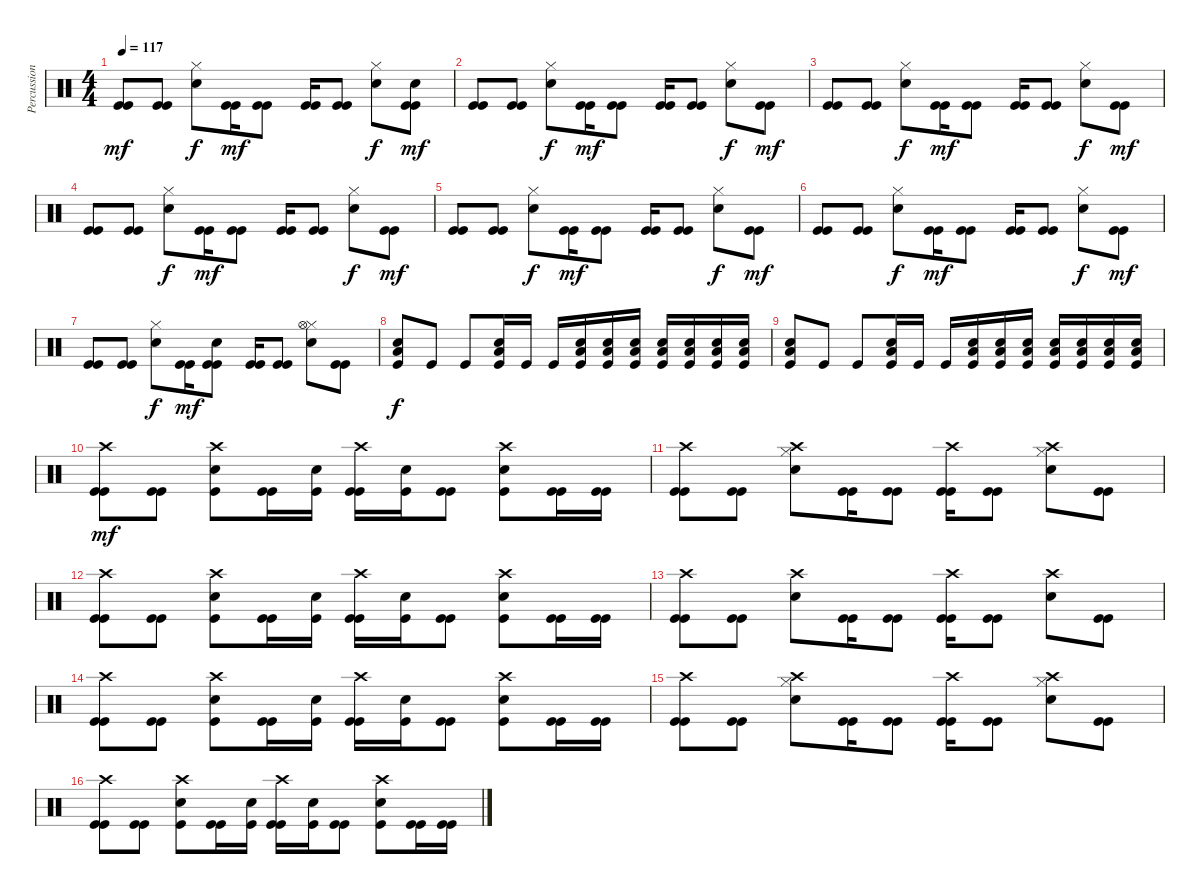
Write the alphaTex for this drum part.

\track ("Percussion" "Percussion") {instrument percussion}
\staff {score}
\articulation defaults
\ts (4 4)
\tempo 117
\clef neutral
\ks c
("Kick (hit)" "Kick (hit)").8{dy mf} ("Kick (hit)" "Kick (hit)").8 ("Electric Snare (hit)" "Hi-Hat (closed)").8{dy f} ("Kick (hit)" "Kick (hit)").16{dy mf} ("Kick (hit)" "Kick (hit)").8 ("Kick (hit)" "Kick (hit)").16 ("Kick (hit)" "Kick (hit)").8 ("Electric Snare (hit)" "Hi-Hat (closed)").8{dy f} ("Kick (hit)" "Kick (hit)" "Snare (hit)"{t}).8{dy mf} |
("Kick (hit)" "Kick (hit)").8 ("Kick (hit)" "Kick (hit)").8 ("Electric Snare (hit)" "Hi-Hat (closed)").8{dy f} ("Kick (hit)" "Kick (hit)").16{dy mf} ("Kick (hit)" "Kick (hit)").8 ("Kick (hit)" "Kick (hit)").16 ("Kick (hit)" "Kick (hit)").8 ("Electric Snare (hit)" "Hi-Hat (closed)").8{dy f} ("Kick (hit)" "Kick (hit)").8{dy mf} |
("Kick (hit)" "Kick (hit)").8 ("Kick (hit)" "Kick (hit)").8 ("Electric Snare (hit)" "Hi-Hat (closed)").8{dy f} ("Kick (hit)" "Kick (hit)").16{dy mf} ("Kick (hit)" "Kick (hit)").8 ("Kick (hit)" "Kick (hit)").16 ("Kick (hit)" "Kick (hit)").8 ("Electric Snare (hit)" "Hi-Hat (closed)").8{dy f} ("Kick (hit)" "Kick (hit)").8{dy mf} |
("Kick (hit)" "Kick (hit)").8 ("Kick (hit)" "Kick (hit)").8 ("Electric Snare (hit)" "Hi-Hat (closed)").8{dy f} ("Kick (hit)" "Kick (hit)").16{dy mf} ("Kick (hit)" "Kick (hit)").8 ("Kick (hit)" "Kick (hit)").16 ("Kick (hit)" "Kick (hit)").8 ("Electric Snare (hit)" "Hi-Hat (closed)").8{dy f} ("Kick (hit)" "Kick (hit)").8{dy mf} |
("Kick (hit)" "Kick (hit)").8 ("Kick (hit)" "Kick (hit)").8 ("Electric Snare (hit)" "Hi-Hat (closed)").8{dy f} ("Kick (hit)" "Kick (hit)").16{dy mf} ("Kick (hit)" "Kick (hit)").8 ("Kick (hit)" "Kick (hit)").16 ("Kick (hit)" "Kick (hit)").8 ("Electric Snare (hit)" "Hi-Hat (closed)").8{dy f} ("Kick (hit)" "Kick (hit)").8{dy mf} |
("Kick (hit)" "Kick (hit)").8 ("Kick (hit)" "Kick (hit)").8 ("Electric Snare (hit)" "Hi-Hat (closed)").8{dy f} ("Kick (hit)" "Kick (hit)").16{dy mf} ("Kick (hit)" "Kick (hit)").8 ("Kick (hit)" "Kick (hit)").16 ("Kick (hit)" "Kick (hit)").8 ("Electric Snare (hit)" "Hi-Hat (closed)").8{dy f} ("Kick (hit)" "Kick (hit)").8{dy mf} |
("Kick (hit)" "Kick (hit)").8 ("Kick (hit)" "Kick (hit)").8 ("Electric Snare (hit)" "Hi-Hat (closed)").8{dy f} ("Kick (hit)" "Kick (hit)").16{dy mf} ("Kick (hit)" "Kick (hit)" "Electric Snare (hit)").8 ("Kick (hit)" "Kick (hit)").16 ("Kick (hit)" "Kick (hit)").8 ("Electric Snare (hit)" "Hi-Hat (closed)" "Hi-Hat (open)").8 ("Kick (hit)" "Kick (hit)").8 |
("Kick (hit)" "Low Floor Tom (hit)" "Hand Clap (hit)").8{dy f} "Kick (hit)".8 "Kick (hit)".8 ("Kick (hit)" "Low Floor Tom (hit)" "Hand Clap (hit)").16 "Kick (hit)".16 "Kick (hit)".16 ("Kick (hit)" "Low Floor Tom (hit)" "Hand Clap (hit)").16 ("Kick (hit)" "Low Floor Tom (hit)" "Hand Clap (hit)").16 ("Kick (hit)" "Low Floor Tom (hit)" "Hand Clap (hit)").16 ("Kick (hit)" "Low Floor Tom (hit)" "Hand Clap (hit)").16 ("Kick (hit)" "Low Floor Tom (hit)" "Hand Clap (hit)").16 ("Kick (hit)" "Low Floor Tom (hit)" "Hand Clap (hit)").16 ("Kick (hit)" "Low Floor Tom (hit)" "Hand Clap (hit)").16 |
("Kick (hit)" "Low Floor Tom (hit)" "Hand Clap (hit)").8 "Kick (hit)".8 "Kick (hit)".8 ("Kick (hit)" "Low Floor Tom (hit)" "Hand Clap (hit)").16 "Kick (hit)".16 "Kick (hit)".16 ("Kick (hit)" "Low Floor Tom (hit)" "Hand Clap (hit)").16 ("Kick (hit)" "Low Floor Tom (hit)" "Hand Clap (hit)").16 ("Kick (hit)" "Low Floor Tom (hit)" "Hand Clap (hit)").16 ("Kick (hit)" "Low Floor Tom (hit)" "Hand Clap (hit)").16 ("Kick (hit)" "Low Floor Tom (hit)" "Hand Clap (hit)").16 ("Kick (hit)" "Low Floor Tom (hit)" "Hand Clap (hit)").16 ("Kick (hit)" "Low Floor Tom (hit)" "Hand Clap (hit)").16 |
("Crash high (hit)" "Kick (hit)" "Kick (hit)").8{dy mf} ("Kick (hit)" "Kick (hit)").8 ("Crash high (hit)" "Kick (hit)" "Electric Snare (hit)").8 ("Kick (hit)" "Kick (hit)").16 ("Kick (hit)" "Electric Snare (hit)").16 ("Crash high (hit)" "Kick (hit)" "Kick (hit)").16 ("Kick (hit)" "Electric Snare (hit)").16 ("Kick (hit)" "Kick (hit)").8 ("Crash high (hit)" "Kick (hit)" "Electric Snare (hit)").8 ("Kick (hit)" "Kick (hit)").16 ("Kick (hit)" "Kick (hit)").16 |
("Kick (hit)" "Kick (hit)" "Crash high (hit)").8 ("Kick (hit)" "Kick (hit)").8 ("Electric Snare (hit)" "Hi-Hat (closed)" "Crash high (hit)").8 ("Kick (hit)" "Kick (hit)").16 ("Kick (hit)" "Kick (hit)").8 ("Kick (hit)" "Kick (hit)" "Crash high (hit)").16 ("Kick (hit)" "Kick (hit)").8 ("Electric Snare (hit)" "Hi-Hat (closed)" "Crash high (hit)").8 ("Kick (hit)" "Kick (hit)").8 |
("Kick (hit)" "Kick (hit)" "Crash high (hit)").8 ("Kick (hit)" "Kick (hit)").8 ("Kick (hit)" "Electric Snare (hit)" "Crash high (hit)").8 ("Kick (hit)" "Kick (hit)").16 ("Kick (hit)" "Electric Snare (hit)").16 ("Kick (hit)" "Kick (hit)" "Crash high (hit)").16 ("Kick (hit)" "Electric Snare (hit)").16 ("Kick (hit)" "Kick (hit)").8 ("Kick (hit)" "Electric Snare (hit)" "Crash high (hit)").8 ("Kick (hit)" "Kick (hit)").16 ("Kick (hit)" "Kick (hit)").16 |
("Kick (hit)" "Kick (hit)" "Crash high (hit)").8 ("Kick (hit)" "Kick (hit)").8 ("Electric Snare (hit)" "Crash high (hit)").8 ("Kick (hit)" "Kick (hit)").16 ("Kick (hit)" "Kick (hit)").8 ("Kick (hit)" "Kick (hit)" "Crash high (hit)").16 ("Kick (hit)" "Kick (hit)").8 ("Electric Snare (hit)" "Crash high (hit)").8 ("Kick (hit)" "Kick (hit)").8 |
("Crash high (hit)" "Kick (hit)" "Kick (hit)").8 ("Kick (hit)" "Kick (hit)").8 ("Crash high (hit)" "Kick (hit)" "Electric Snare (hit)").8 ("Kick (hit)" "Kick (hit)").16 ("Kick (hit)" "Electric Snare (hit)").16 ("Crash high (hit)" "Kick (hit)" "Kick (hit)").16 ("Kick (hit)" "Electric Snare (hit)").16 ("Kick (hit)" "Kick (hit)").8 ("Crash high (hit)" "Kick (hit)" "Electric Snare (hit)").8 ("Kick (hit)" "Kick (hit)").16 ("Kick (hit)" "Kick (hit)").16 |
("Kick (hit)" "Kick (hit)" "Crash high (hit)").8 ("Kick (hit)" "Kick (hit)").8 ("Electric Snare (hit)" "Hi-Hat (closed)" "Crash high (hit)").8 ("Kick (hit)" "Kick (hit)").16 ("Kick (hit)" "Kick (hit)").8 ("Kick (hit)" "Kick (hit)" "Crash high (hit)").16 ("Kick (hit)" "Kick (hit)").8 ("Electric Snare (hit)" "Hi-Hat (closed)" "Crash high (hit)").8 ("Kick (hit)" "Kick (hit)").8 |
("Kick (hit)" "Kick (hit)" "Crash high (hit)").8 ("Kick (hit)" "Kick (hit)").8 ("Kick (hit)" "Electric Snare (hit)" "Crash high (hit)").8 ("Kick (hit)" "Kick (hit)").16 ("Kick (hit)" "Electric Snare (hit)").16 ("Kick (hit)" "Kick (hit)" "Crash high (hit)").16 ("Kick (hit)" "Electric Snare (hit)").16 ("Kick (hit)" "Kick (hit)").8 ("Kick (hit)" "Electric Snare (hit)" "Crash high (hit)").8 ("Kick (hit)" "Kick (hit)").16 ("Kick (hit)" "Kick (hit)").16
